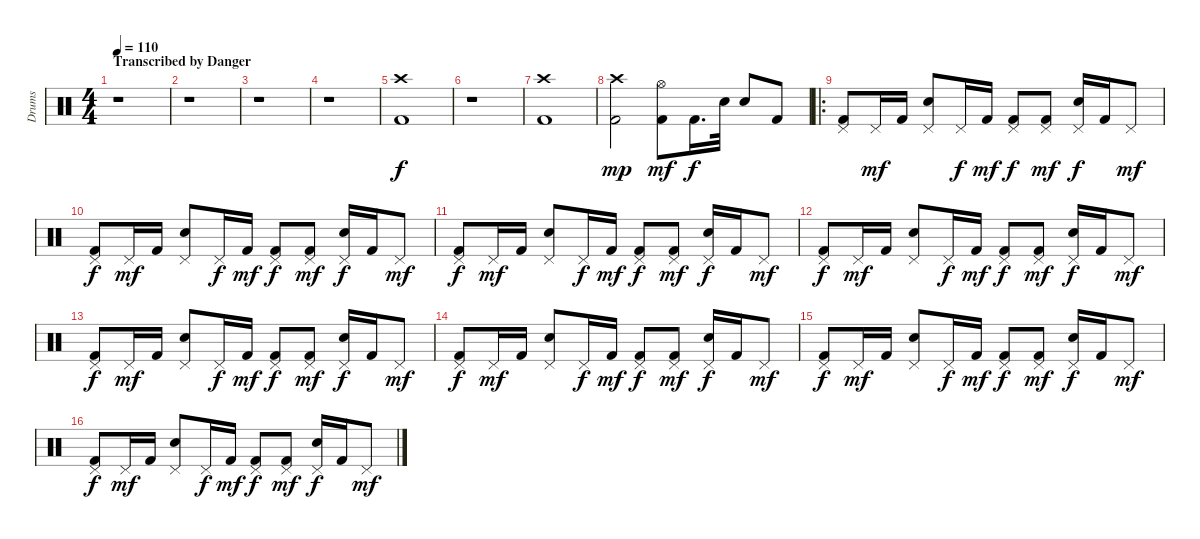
\track ("Drums" "Drums") {instrument percussion}
\staff {score}
\articulation defaults
\ts (4 4)
\section ("" "Transcribed by Danger")
\tempo 110
\clef neutral
\ks c
r.1{dy f} |
r.1 |
r.1 |
r.1 |
("Crash high (hit)" "Kick (hit) 2").1 |
r.1 |
("Crash high (hit)" "Kick (hit) 2").1 |
("Crash high (hit)" "Kick (hit) 2").2{dy mp} ("Hi-Hat (open)" "Kick (hit) 2").8{dy mf} "Kick (hit) 2".16{d dy f} "Electric Snare (hit)".32 "Electric Snare (hit)".8 "Kick (hit) 2".8 |
\ro
("Pedal Hi-Hat (hit)" "Kick (hit) 2").8 "Pedal Hi-Hat (hit)".16{dy mf} "Kick (hit) 2".16 ("Pedal Hi-Hat (hit)" "Electric Snare (hit)").8 "Pedal Hi-Hat (hit)".16{dy f} "Kick (hit) 2".16{dy mf} ("Pedal Hi-Hat (hit)" "Kick (hit) 2").8{dy f} ("Pedal Hi-Hat (hit)" "Kick (hit) 2").8{dy mf} ("Pedal Hi-Hat (hit)" "Electric Snare (hit)").16{dy f} "Kick (hit) 2".16 "Pedal Hi-Hat (hit)".8{dy mf} |
("Pedal Hi-Hat (hit)" "Kick (hit) 2").8{dy f} "Pedal Hi-Hat (hit)".16{dy mf} "Kick (hit) 2".16 ("Pedal Hi-Hat (hit)" "Electric Snare (hit)").8 "Pedal Hi-Hat (hit)".16{dy f} "Kick (hit) 2".16{dy mf} ("Pedal Hi-Hat (hit)" "Kick (hit) 2").8{dy f} ("Pedal Hi-Hat (hit)" "Kick (hit) 2").8{dy mf} ("Pedal Hi-Hat (hit)" "Electric Snare (hit)").16{dy f} "Kick (hit) 2".16 "Pedal Hi-Hat (hit)".8{dy mf} |
("Pedal Hi-Hat (hit)" "Kick (hit) 2").8{dy f} "Pedal Hi-Hat (hit)".16{dy mf} "Kick (hit) 2".16 ("Pedal Hi-Hat (hit)" "Electric Snare (hit)").8 "Pedal Hi-Hat (hit)".16{dy f} "Kick (hit) 2".16{dy mf} ("Pedal Hi-Hat (hit)" "Kick (hit) 2").8{dy f} ("Pedal Hi-Hat (hit)" "Kick (hit) 2").8{dy mf} ("Pedal Hi-Hat (hit)" "Electric Snare (hit)").16{dy f} "Kick (hit) 2".16 "Pedal Hi-Hat (hit)".8{dy mf} |
("Pedal Hi-Hat (hit)" "Kick (hit) 2").8{dy f} "Pedal Hi-Hat (hit)".16{dy mf} "Kick (hit) 2".16 ("Pedal Hi-Hat (hit)" "Electric Snare (hit)").8 "Pedal Hi-Hat (hit)".16{dy f} "Kick (hit) 2".16{dy mf} ("Pedal Hi-Hat (hit)" "Kick (hit) 2").8{dy f} ("Pedal Hi-Hat (hit)" "Kick (hit) 2").8{dy mf} ("Pedal Hi-Hat (hit)" "Electric Snare (hit)").16{dy f} "Kick (hit) 2".16 "Pedal Hi-Hat (hit)".8{dy mf} |
("Pedal Hi-Hat (hit)" "Kick (hit) 2").8{dy f} "Pedal Hi-Hat (hit)".16{dy mf} "Kick (hit) 2".16 ("Pedal Hi-Hat (hit)" "Electric Snare (hit)").8 "Pedal Hi-Hat (hit)".16{dy f} "Kick (hit) 2".16{dy mf} ("Pedal Hi-Hat (hit)" "Kick (hit) 2").8{dy f} ("Pedal Hi-Hat (hit)" "Kick (hit) 2").8{dy mf} ("Pedal Hi-Hat (hit)" "Electric Snare (hit)").16{dy f} "Kick (hit) 2".16 "Pedal Hi-Hat (hit)".8{dy mf} |
("Pedal Hi-Hat (hit)" "Kick (hit) 2").8{dy f} "Pedal Hi-Hat (hit)".16{dy mf} "Kick (hit) 2".16 ("Pedal Hi-Hat (hit)" "Electric Snare (hit)").8 "Pedal Hi-Hat (hit)".16{dy f} "Kick (hit) 2".16{dy mf} ("Pedal Hi-Hat (hit)" "Kick (hit) 2").8{dy f} ("Pedal Hi-Hat (hit)" "Kick (hit) 2").8{dy mf} ("Pedal Hi-Hat (hit)" "Electric Snare (hit)").16{dy f} "Kick (hit) 2".16 "Pedal Hi-Hat (hit)".8{dy mf} |
("Pedal Hi-Hat (hit)" "Kick (hit) 2").8{dy f} "Pedal Hi-Hat (hit)".16{dy mf} "Kick (hit) 2".16 ("Pedal Hi-Hat (hit)" "Electric Snare (hit)").8 "Pedal Hi-Hat (hit)".16{dy f} "Kick (hit) 2".16{dy mf} ("Pedal Hi-Hat (hit)" "Kick (hit) 2").8{dy f} ("Pedal Hi-Hat (hit)" "Kick (hit) 2").8{dy mf} ("Pedal Hi-Hat (hit)" "Electric Snare (hit)").16{dy f} "Kick (hit) 2".16 "Pedal Hi-Hat (hit)".8{dy mf} |
("Pedal Hi-Hat (hit)" "Kick (hit) 2").8{dy f} "Pedal Hi-Hat (hit)".16{dy mf} "Kick (hit) 2".16 ("Pedal Hi-Hat (hit)" "Electric Snare (hit)").8 "Pedal Hi-Hat (hit)".16{dy f} "Kick (hit) 2".16{dy mf} ("Pedal Hi-Hat (hit)" "Kick (hit) 2").8{dy f} ("Pedal Hi-Hat (hit)" "Kick (hit) 2").8{dy mf} ("Pedal Hi-Hat (hit)" "Electric Snare (hit)").16{dy f} "Kick (hit) 2".16 "Pedal Hi-Hat (hit)".8{dy mf}
